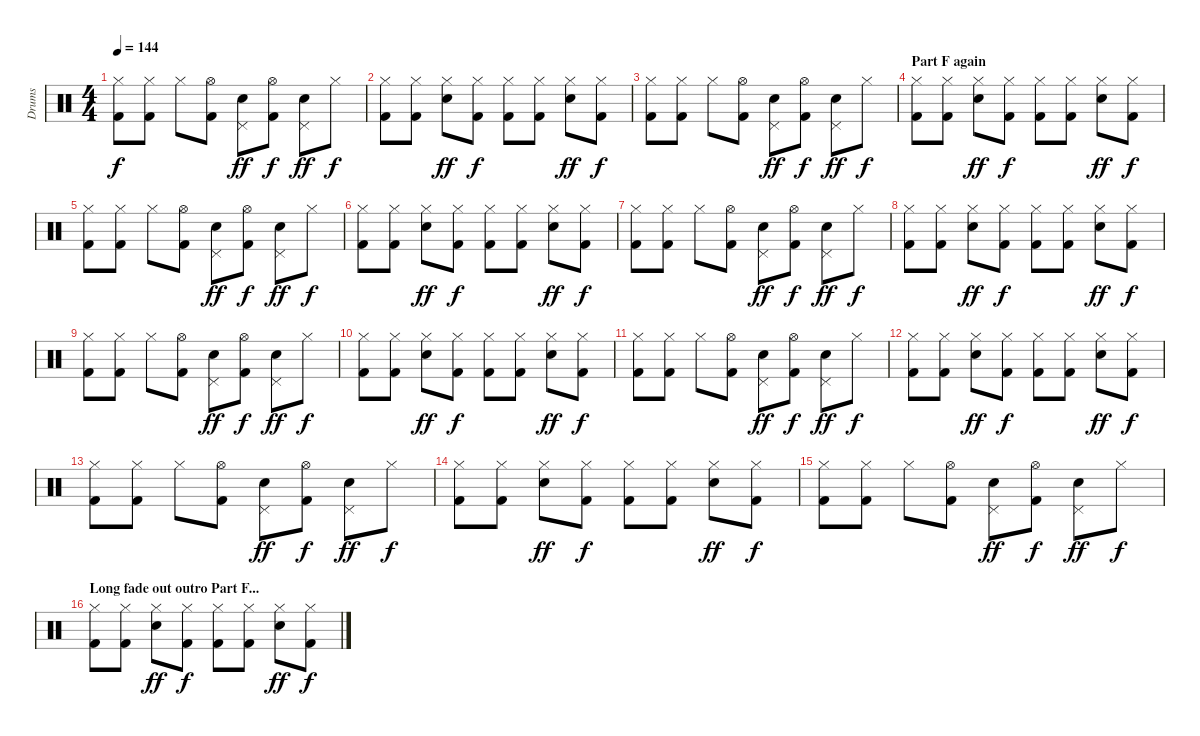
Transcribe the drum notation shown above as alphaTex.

\track ("Drums" "Drums") {instrument percussion}
\staff {score}
\articulation defaults
\ts (4 4)
\tempo 144
\clef neutral
\ks c
("Hi-Hat (closed)" "Kick (hit) 2").8{dy f} ("Hi-Hat (closed)" "Kick (hit) 2").8 "Hi-Hat (closed)".8 ("Hi-Hat (open)" "Kick (hit) 2").8 ("Pedal Hi-Hat (hit)" "Electric Snare (hit)").8{dy ff} ("Hi-Hat (open)" "Kick (hit) 2").8{dy f} ("Pedal Hi-Hat (hit)" "Electric Snare (hit)").8{dy ff} "Hi-Hat (closed)".8{dy f} |
("Hi-Hat (closed)" "Kick (hit) 2").8 ("Hi-Hat (closed)" "Kick (hit) 2").8 ("Hi-Hat (closed)" "Electric Snare (hit)").8{dy ff} ("Hi-Hat (closed)" "Kick (hit) 2").8{dy f} ("Hi-Hat (closed)" "Kick (hit) 2").8 ("Hi-Hat (closed)" "Kick (hit) 2").8 ("Hi-Hat (closed)" "Electric Snare (hit)").8{dy ff} ("Hi-Hat (closed)" "Kick (hit) 2").8{dy f} |
("Hi-Hat (closed)" "Kick (hit) 2").8 ("Hi-Hat (closed)" "Kick (hit) 2").8 "Hi-Hat (closed)".8 ("Hi-Hat (open)" "Kick (hit) 2").8 ("Pedal Hi-Hat (hit)" "Electric Snare (hit)").8{dy ff} ("Hi-Hat (open)" "Kick (hit) 2").8{dy f} ("Pedal Hi-Hat (hit)" "Electric Snare (hit)").8{dy ff} "Hi-Hat (closed)".8{dy f} |
\section ("" "Part F again")
("Hi-Hat (closed)" "Kick (hit) 2").8 ("Hi-Hat (closed)" "Kick (hit) 2").8 ("Hi-Hat (closed)" "Electric Snare (hit)").8{dy ff} ("Hi-Hat (closed)" "Kick (hit) 2").8{dy f} ("Hi-Hat (closed)" "Kick (hit) 2").8 ("Hi-Hat (closed)" "Kick (hit) 2").8 ("Hi-Hat (closed)" "Electric Snare (hit)").8{dy ff} ("Hi-Hat (closed)" "Kick (hit) 2").8{dy f} |
("Hi-Hat (closed)" "Kick (hit) 2").8 ("Hi-Hat (closed)" "Kick (hit) 2").8 "Hi-Hat (closed)".8 ("Hi-Hat (open)" "Kick (hit) 2").8 ("Pedal Hi-Hat (hit)" "Electric Snare (hit)").8{dy ff} ("Hi-Hat (open)" "Kick (hit) 2").8{dy f} ("Pedal Hi-Hat (hit)" "Electric Snare (hit)").8{dy ff} "Hi-Hat (closed)".8{dy f} |
("Hi-Hat (closed)" "Kick (hit) 2").8 ("Hi-Hat (closed)" "Kick (hit) 2").8 ("Hi-Hat (closed)" "Electric Snare (hit)").8{dy ff} ("Hi-Hat (closed)" "Kick (hit) 2").8{dy f} ("Hi-Hat (closed)" "Kick (hit) 2").8 ("Hi-Hat (closed)" "Kick (hit) 2").8 ("Hi-Hat (closed)" "Electric Snare (hit)").8{dy ff} ("Hi-Hat (closed)" "Kick (hit) 2").8{dy f} |
("Hi-Hat (closed)" "Kick (hit) 2").8 ("Hi-Hat (closed)" "Kick (hit) 2").8 "Hi-Hat (closed)".8 ("Hi-Hat (open)" "Kick (hit) 2").8 ("Pedal Hi-Hat (hit)" "Electric Snare (hit)").8{dy ff} ("Hi-Hat (open)" "Kick (hit) 2").8{dy f} ("Pedal Hi-Hat (hit)" "Electric Snare (hit)").8{dy ff} "Hi-Hat (closed)".8{dy f} |
("Hi-Hat (closed)" "Kick (hit) 2").8 ("Hi-Hat (closed)" "Kick (hit) 2").8 ("Hi-Hat (closed)" "Electric Snare (hit)").8{dy ff} ("Hi-Hat (closed)" "Kick (hit) 2").8{dy f} ("Hi-Hat (closed)" "Kick (hit) 2").8 ("Hi-Hat (closed)" "Kick (hit) 2").8 ("Hi-Hat (closed)" "Electric Snare (hit)").8{dy ff} ("Hi-Hat (closed)" "Kick (hit) 2").8{dy f} |
("Hi-Hat (closed)" "Kick (hit) 2").8 ("Hi-Hat (closed)" "Kick (hit) 2").8 "Hi-Hat (closed)".8 ("Hi-Hat (open)" "Kick (hit) 2").8 ("Pedal Hi-Hat (hit)" "Electric Snare (hit)").8{dy ff} ("Hi-Hat (open)" "Kick (hit) 2").8{dy f} ("Pedal Hi-Hat (hit)" "Electric Snare (hit)").8{dy ff} "Hi-Hat (closed)".8{dy f} |
("Hi-Hat (closed)" "Kick (hit) 2").8 ("Hi-Hat (closed)" "Kick (hit) 2").8 ("Hi-Hat (closed)" "Electric Snare (hit)").8{dy ff} ("Hi-Hat (closed)" "Kick (hit) 2").8{dy f} ("Hi-Hat (closed)" "Kick (hit) 2").8 ("Hi-Hat (closed)" "Kick (hit) 2").8 ("Hi-Hat (closed)" "Electric Snare (hit)").8{dy ff} ("Hi-Hat (closed)" "Kick (hit) 2").8{dy f} |
("Hi-Hat (closed)" "Kick (hit) 2").8 ("Hi-Hat (closed)" "Kick (hit) 2").8 "Hi-Hat (closed)".8 ("Hi-Hat (open)" "Kick (hit) 2").8 ("Pedal Hi-Hat (hit)" "Electric Snare (hit)").8{dy ff} ("Hi-Hat (open)" "Kick (hit) 2").8{dy f} ("Pedal Hi-Hat (hit)" "Electric Snare (hit)").8{dy ff} "Hi-Hat (closed)".8{dy f} |
("Hi-Hat (closed)" "Kick (hit) 2").8 ("Hi-Hat (closed)" "Kick (hit) 2").8 ("Hi-Hat (closed)" "Electric Snare (hit)").8{dy ff} ("Hi-Hat (closed)" "Kick (hit) 2").8{dy f} ("Hi-Hat (closed)" "Kick (hit) 2").8 ("Hi-Hat (closed)" "Kick (hit) 2").8 ("Hi-Hat (closed)" "Electric Snare (hit)").8{dy ff} ("Hi-Hat (closed)" "Kick (hit) 2").8{dy f} |
("Hi-Hat (closed)" "Kick (hit) 2").8 ("Hi-Hat (closed)" "Kick (hit) 2").8 "Hi-Hat (closed)".8 ("Hi-Hat (open)" "Kick (hit) 2").8 ("Pedal Hi-Hat (hit)" "Electric Snare (hit)").8{dy ff} ("Hi-Hat (open)" "Kick (hit) 2").8{dy f} ("Pedal Hi-Hat (hit)" "Electric Snare (hit)").8{dy ff} "Hi-Hat (closed)".8{dy f} |
("Hi-Hat (closed)" "Kick (hit) 2").8 ("Hi-Hat (closed)" "Kick (hit) 2").8 ("Hi-Hat (closed)" "Electric Snare (hit)").8{dy ff} ("Hi-Hat (closed)" "Kick (hit) 2").8{dy f} ("Hi-Hat (closed)" "Kick (hit) 2").8 ("Hi-Hat (closed)" "Kick (hit) 2").8 ("Hi-Hat (closed)" "Electric Snare (hit)").8{dy ff} ("Hi-Hat (closed)" "Kick (hit) 2").8{dy f} |
("Hi-Hat (closed)" "Kick (hit) 2").8 ("Hi-Hat (closed)" "Kick (hit) 2").8 "Hi-Hat (closed)".8 ("Hi-Hat (open)" "Kick (hit) 2").8 ("Pedal Hi-Hat (hit)" "Electric Snare (hit)").8{dy ff} ("Hi-Hat (open)" "Kick (hit) 2").8{dy f} ("Pedal Hi-Hat (hit)" "Electric Snare (hit)").8{dy ff} "Hi-Hat (closed)".8{dy f} |
\section ("" "Long fade out outro Part F...")
("Hi-Hat (closed)" "Kick (hit) 2").8{volume 10} ("Hi-Hat (closed)" "Kick (hit) 2").8 ("Hi-Hat (closed)" "Electric Snare (hit)").8{dy ff} ("Hi-Hat (closed)" "Kick (hit) 2").8{dy f} ("Hi-Hat (closed)" "Kick (hit) 2").8 ("Hi-Hat (closed)" "Kick (hit) 2").8 ("Hi-Hat (closed)" "Electric Snare (hit)").8{dy ff} ("Hi-Hat (closed)" "Kick (hit) 2").8{dy f}
